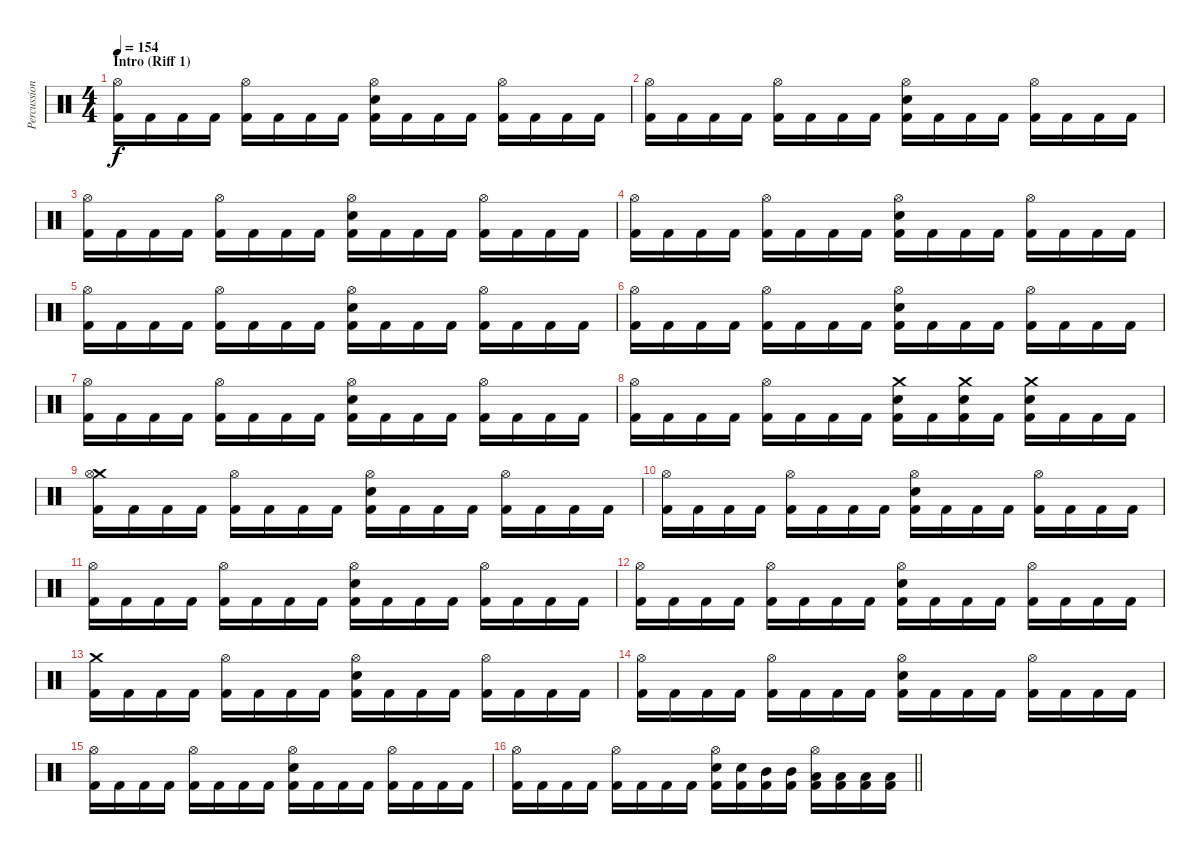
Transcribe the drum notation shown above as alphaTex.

\track ("Percussion" "Percussion") {instrument percussion}
\staff {score}
\articulation defaults
\ts (4 4)
\section ("" "Intro (Riff 1)")
\tempo 154
\clef neutral
\ks c
("Hi-Hat (open)" "Kick (hit) 2").16{dy f} "Kick (hit) 2".16 "Kick (hit) 2".16 "Kick (hit) 2".16 ("Hi-Hat (open)" "Kick (hit) 2").16 "Kick (hit) 2".16 "Kick (hit) 2".16 "Kick (hit) 2".16 ("Hi-Hat (open)" "Electric Snare (hit)" "Kick (hit) 2").16 "Kick (hit) 2".16 "Kick (hit) 2".16 "Kick (hit) 2".16 ("Hi-Hat (open)" "Kick (hit) 2").16 "Kick (hit) 2".16 "Kick (hit) 2".16 "Kick (hit) 2".16 |
("Hi-Hat (open)" "Kick (hit) 2").16 "Kick (hit) 2".16 "Kick (hit) 2".16 "Kick (hit) 2".16 ("Hi-Hat (open)" "Kick (hit) 2").16 "Kick (hit) 2".16 "Kick (hit) 2".16 "Kick (hit) 2".16 ("Hi-Hat (open)" "Electric Snare (hit)" "Kick (hit) 2").16 "Kick (hit) 2".16 "Kick (hit) 2".16 "Kick (hit) 2".16 ("Hi-Hat (open)" "Kick (hit) 2").16 "Kick (hit) 2".16 "Kick (hit) 2".16 "Kick (hit) 2".16 |
("Hi-Hat (open)" "Kick (hit) 2").16 "Kick (hit) 2".16 "Kick (hit) 2".16 "Kick (hit) 2".16 ("Hi-Hat (open)" "Kick (hit) 2").16 "Kick (hit) 2".16 "Kick (hit) 2".16 "Kick (hit) 2".16 ("Hi-Hat (open)" "Electric Snare (hit)" "Kick (hit) 2").16 "Kick (hit) 2".16 "Kick (hit) 2".16 "Kick (hit) 2".16 ("Hi-Hat (open)" "Kick (hit) 2").16 "Kick (hit) 2".16 "Kick (hit) 2".16 "Kick (hit) 2".16 |
("Hi-Hat (open)" "Kick (hit) 2").16 "Kick (hit) 2".16 "Kick (hit) 2".16 "Kick (hit) 2".16 ("Hi-Hat (open)" "Kick (hit) 2").16 "Kick (hit) 2".16 "Kick (hit) 2".16 "Kick (hit) 2".16 ("Hi-Hat (open)" "Electric Snare (hit)" "Kick (hit) 2").16 "Kick (hit) 2".16 "Kick (hit) 2".16 "Kick (hit) 2".16 ("Hi-Hat (open)" "Kick (hit) 2").16 "Kick (hit) 2".16 "Kick (hit) 2".16 "Kick (hit) 2".16 |
("Hi-Hat (open)" "Kick (hit) 2").16 "Kick (hit) 2".16 "Kick (hit) 2".16 "Kick (hit) 2".16 ("Hi-Hat (open)" "Kick (hit) 2").16 "Kick (hit) 2".16 "Kick (hit) 2".16 "Kick (hit) 2".16 ("Hi-Hat (open)" "Electric Snare (hit)" "Kick (hit) 2").16 "Kick (hit) 2".16 "Kick (hit) 2".16 "Kick (hit) 2".16 ("Hi-Hat (open)" "Kick (hit) 2").16 "Kick (hit) 2".16 "Kick (hit) 2".16 "Kick (hit) 2".16 |
("Hi-Hat (open)" "Kick (hit) 2").16 "Kick (hit) 2".16 "Kick (hit) 2".16 "Kick (hit) 2".16 ("Hi-Hat (open)" "Kick (hit) 2").16 "Kick (hit) 2".16 "Kick (hit) 2".16 "Kick (hit) 2".16 ("Hi-Hat (open)" "Electric Snare (hit)" "Kick (hit) 2").16 "Kick (hit) 2".16 "Kick (hit) 2".16 "Kick (hit) 2".16 ("Hi-Hat (open)" "Kick (hit) 2").16 "Kick (hit) 2".16 "Kick (hit) 2".16 "Kick (hit) 2".16 |
("Hi-Hat (open)" "Kick (hit) 2").16 "Kick (hit) 2".16 "Kick (hit) 2".16 "Kick (hit) 2".16 ("Hi-Hat (open)" "Kick (hit) 2").16 "Kick (hit) 2".16 "Kick (hit) 2".16 "Kick (hit) 2".16 ("Hi-Hat (open)" "Electric Snare (hit)" "Kick (hit) 2").16 "Kick (hit) 2".16 "Kick (hit) 2".16 "Kick (hit) 2".16 ("Hi-Hat (open)" "Kick (hit) 2").16 "Kick (hit) 2".16 "Kick (hit) 2".16 "Kick (hit) 2".16 |
("Hi-Hat (open)" "Kick (hit) 2").16 "Kick (hit) 2".16 "Kick (hit) 2".16 "Kick (hit) 2".16 ("Hi-Hat (open)" "Kick (hit) 2").16 "Kick (hit) 2".16 "Kick (hit) 2".16 "Kick (hit) 2".16 ("Crash medium (hit)" "Electric Snare (hit)" "Kick (hit) 2").16 "Kick (hit) 2".16 ("Crash medium (hit)" "Electric Snare (hit)" "Kick (hit) 2").16 "Kick (hit) 2".16 ("Crash medium (hit)" "Electric Snare (hit)" "Kick (hit) 2").16 "Kick (hit) 2".16 "Kick (hit) 2".16 "Kick (hit) 2".16 |
("Crash medium (hit)" "Hi-Hat (open)" "Kick (hit) 2").16 "Kick (hit) 2".16 "Kick (hit) 2".16 "Kick (hit) 2".16 ("Hi-Hat (open)" "Kick (hit) 2").16 "Kick (hit) 2".16 "Kick (hit) 2".16 "Kick (hit) 2".16 ("Hi-Hat (open)" "Electric Snare (hit)" "Kick (hit) 2").16 "Kick (hit) 2".16 "Kick (hit) 2".16 "Kick (hit) 2".16 ("Hi-Hat (open)" "Kick (hit) 2").16 "Kick (hit) 2".16 "Kick (hit) 2".16 "Kick (hit) 2".16 |
("Hi-Hat (open)" "Kick (hit) 2").16 "Kick (hit) 2".16 "Kick (hit) 2".16 "Kick (hit) 2".16 ("Hi-Hat (open)" "Kick (hit) 2").16 "Kick (hit) 2".16 "Kick (hit) 2".16 "Kick (hit) 2".16 ("Hi-Hat (open)" "Electric Snare (hit)" "Kick (hit) 2").16 "Kick (hit) 2".16 "Kick (hit) 2".16 "Kick (hit) 2".16 ("Hi-Hat (open)" "Kick (hit) 2").16 "Kick (hit) 2".16 "Kick (hit) 2".16 "Kick (hit) 2".16 |
("Hi-Hat (open)" "Kick (hit) 2").16 "Kick (hit) 2".16 "Kick (hit) 2".16 "Kick (hit) 2".16 ("Hi-Hat (open)" "Kick (hit) 2").16 "Kick (hit) 2".16 "Kick (hit) 2".16 "Kick (hit) 2".16 ("Hi-Hat (open)" "Electric Snare (hit)" "Kick (hit) 2").16 "Kick (hit) 2".16 "Kick (hit) 2".16 "Kick (hit) 2".16 ("Hi-Hat (open)" "Kick (hit) 2").16 "Kick (hit) 2".16 "Kick (hit) 2".16 "Kick (hit) 2".16 |
("Hi-Hat (open)" "Kick (hit) 2").16 "Kick (hit) 2".16 "Kick (hit) 2".16 "Kick (hit) 2".16 ("Hi-Hat (open)" "Kick (hit) 2").16 "Kick (hit) 2".16 "Kick (hit) 2".16 "Kick (hit) 2".16 ("Hi-Hat (open)" "Electric Snare (hit)" "Kick (hit) 2").16 "Kick (hit) 2".16 "Kick (hit) 2".16 "Kick (hit) 2".16 ("Hi-Hat (open)" "Kick (hit) 2").16 "Kick (hit) 2".16 "Kick (hit) 2".16 "Kick (hit) 2".16 |
("Crash medium (hit)" "Kick (hit) 2").16 "Kick (hit) 2".16 "Kick (hit) 2".16 "Kick (hit) 2".16 ("Hi-Hat (open)" "Kick (hit) 2").16 "Kick (hit) 2".16 "Kick (hit) 2".16 "Kick (hit) 2".16 ("Hi-Hat (open)" "Electric Snare (hit)" "Kick (hit) 2").16 "Kick (hit) 2".16 "Kick (hit) 2".16 "Kick (hit) 2".16 ("Hi-Hat (open)" "Kick (hit) 2").16 "Kick (hit) 2".16 "Kick (hit) 2".16 "Kick (hit) 2".16 |
("Hi-Hat (open)" "Kick (hit) 2").16 "Kick (hit) 2".16 "Kick (hit) 2".16 "Kick (hit) 2".16 ("Hi-Hat (open)" "Kick (hit) 2").16 "Kick (hit) 2".16 "Kick (hit) 2".16 "Kick (hit) 2".16 ("Hi-Hat (open)" "Electric Snare (hit)" "Kick (hit) 2").16 "Kick (hit) 2".16 "Kick (hit) 2".16 "Kick (hit) 2".16 ("Hi-Hat (open)" "Kick (hit) 2").16 "Kick (hit) 2".16 "Kick (hit) 2".16 "Kick (hit) 2".16 |
("Hi-Hat (open)" "Kick (hit) 2").16 "Kick (hit) 2".16 "Kick (hit) 2".16 "Kick (hit) 2".16 ("Hi-Hat (open)" "Kick (hit) 2").16 "Kick (hit) 2".16 "Kick (hit) 2".16 "Kick (hit) 2".16 ("Hi-Hat (open)" "Electric Snare (hit)" "Kick (hit) 2").16 "Kick (hit) 2".16 "Kick (hit) 2".16 "Kick (hit) 2".16 ("Hi-Hat (open)" "Kick (hit) 2").16 "Kick (hit) 2".16 "Kick (hit) 2".16 "Kick (hit) 2".16 |
\barLineRight lightlight
("Hi-Hat (open)" "Kick (hit) 2").16 "Kick (hit) 2".16 "Kick (hit) 2".16 "Kick (hit) 2".16 ("Hi-Hat (open)" "Kick (hit) 2").16 "Kick (hit) 2".16 "Kick (hit) 2".16 "Kick (hit) 2".16 ("Hi-Hat (open)" "Electric Snare (hit)" "Kick (hit) 2").16 ("Electric Snare (hit)" "Kick (hit) 2").16 ("Mid Tom (hit)" "Kick (hit) 2").16 ("Mid Tom (hit)" "Kick (hit) 2").16 ("Hi-Hat (open)" "Low Tom (hit)" "Kick (hit) 2").16 ("Low Tom (hit)" "Kick (hit) 2").16 ("Low Floor Tom (hit)" "Kick (hit) 2").16 ("Low Floor Tom (hit)" "Kick (hit) 2").16
